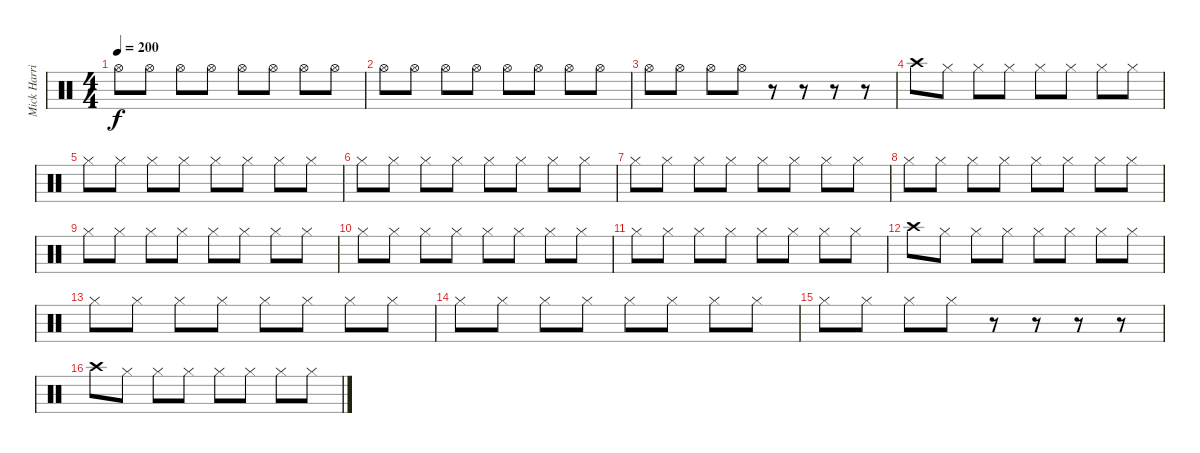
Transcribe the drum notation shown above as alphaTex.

\track ("Mick Harris" "Mick Harri") {instrument percussion}
\staff {score}
\articulation defaults
\ts (4 4)
\tempo 200
\clef neutral
\ks c "Hi-Hat (open)".8{dy f} "Hi-Hat (open)".8 "Hi-Hat (open)".8 "Hi-Hat (open)".8 "Hi-Hat (open)".8 "Hi-Hat (open)".8 "Hi-Hat (open)".8 "Hi-Hat (open)".8
|
"Hi-Hat (open)".8 "Hi-Hat (open)".8 "Hi-Hat (open)".8 "Hi-Hat (open)".8 "Hi-Hat (open)".8 "Hi-Hat (open)".8 "Hi-Hat (open)".8 "Hi-Hat (open)".8 |
"Hi-Hat (open)".8 "Hi-Hat (open)".8 "Hi-Hat (open)".8 "Hi-Hat (open)".8 r.8 r.8 r.8 r.8 |
"Crash high (hit)".8 "Hi-Hat (closed)".8 "Hi-Hat (closed)".8 "Hi-Hat (closed)".8 "Hi-Hat (closed)".8 "Hi-Hat (closed)".8 "Hi-Hat (closed)".8 "Hi-Hat (closed)".8 |
"Hi-Hat (closed)".8 "Hi-Hat (closed)".8 "Hi-Hat (closed)".8 "Hi-Hat (closed)".8 "Hi-Hat (closed)".8 "Hi-Hat (closed)".8 "Hi-Hat (closed)".8 "Hi-Hat (closed)".8 |
"Hi-Hat (closed)".8 "Hi-Hat (closed)".8 "Hi-Hat (closed)".8 "Hi-Hat (closed)".8 "Hi-Hat (closed)".8 "Hi-Hat (closed)".8 "Hi-Hat (closed)".8 "Hi-Hat (closed)".8 |
"Hi-Hat (closed)".8 "Hi-Hat (closed)".8 "Hi-Hat (closed)".8 "Hi-Hat (closed)".8 "Hi-Hat (closed)".8 "Hi-Hat (closed)".8 "Hi-Hat (closed)".8 "Hi-Hat (closed)".8 |
"Hi-Hat (closed)".8 "Hi-Hat (closed)".8 "Hi-Hat (closed)".8 "Hi-Hat (closed)".8 "Hi-Hat (closed)".8 "Hi-Hat (closed)".8 "Hi-Hat (closed)".8 "Hi-Hat (closed)".8 |
"Hi-Hat (closed)".8 "Hi-Hat (closed)".8 "Hi-Hat (closed)".8 "Hi-Hat (closed)".8 "Hi-Hat (closed)".8 "Hi-Hat (closed)".8 "Hi-Hat (closed)".8 "Hi-Hat (closed)".8 |
"Hi-Hat (closed)".8 "Hi-Hat (closed)".8 "Hi-Hat (closed)".8 "Hi-Hat (closed)".8 "Hi-Hat (closed)".8 "Hi-Hat (closed)".8 "Hi-Hat (closed)".8 "Hi-Hat (closed)".8 |
"Hi-Hat (closed)".8 "Hi-Hat (closed)".8 "Hi-Hat (closed)".8 "Hi-Hat (closed)".8 "Hi-Hat (closed)".8 "Hi-Hat (closed)".8 "Hi-Hat (closed)".8 "Hi-Hat (closed)".8 |
"Crash high (hit)".8 "Hi-Hat (closed)".8 "Hi-Hat (closed)".8 "Hi-Hat (closed)".8 "Hi-Hat (closed)".8 "Hi-Hat (closed)".8 "Hi-Hat (closed)".8 "Hi-Hat (closed)".8 |
"Hi-Hat (closed)".8 "Hi-Hat (closed)".8 "Hi-Hat (closed)".8 "Hi-Hat (closed)".8 "Hi-Hat (closed)".8 "Hi-Hat (closed)".8 "Hi-Hat (closed)".8 "Hi-Hat (closed)".8 |
"Hi-Hat (closed)".8 "Hi-Hat (closed)".8 "Hi-Hat (closed)".8 "Hi-Hat (closed)".8 "Hi-Hat (closed)".8 "Hi-Hat (closed)".8 "Hi-Hat (closed)".8 "Hi-Hat (closed)".8 |
"Hi-Hat (closed)".8 "Hi-Hat (closed)".8 "Hi-Hat (closed)".8 "Hi-Hat (closed)".8 r.8 r.8 r.8 r.8 |
"Crash high (hit)".8 "Hi-Hat (closed)".8 "Hi-Hat (closed)".8 "Hi-Hat (closed)".8 "Hi-Hat (closed)".8 "Hi-Hat (closed)".8 "Hi-Hat (closed)".8 "Hi-Hat (closed)".8
